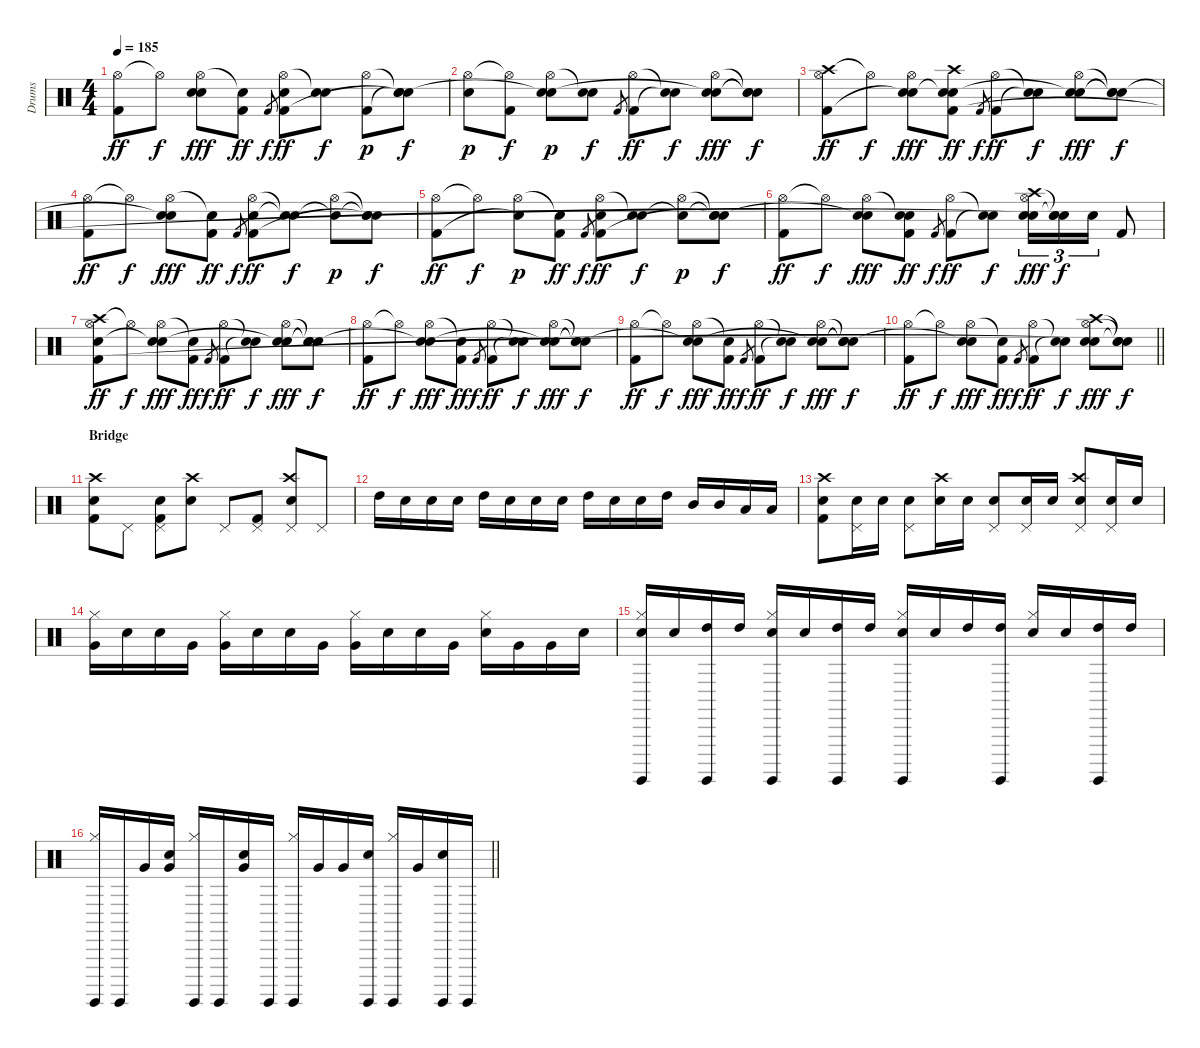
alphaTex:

\track ("Drums" "Drums") {instrument percussion}
\staff {score}
\articulation defaults
\ts (4 4)
\tempo 185
\clef neutral
\ks c
("Hi-Hat (open)" "Kick (hit) 2").8{dy ff} "Hi-Hat (open)"{t}.8{dy f} ("Hi-Hat (open)" "Electric Snare (hit)" "Snare (hit)"{t}).8{dy fff} ("Snare (hit)"{t} "Kick (hit) 2").8{dy ff} "Kick (hit) 2".8{gr dy f} ("Hi-Hat (open)" "Electric Snare (hit)" "Kick (hit) 2").8{dy ff} ("Snare (hit)"{t} "Electric Snare (hit)").8{dy f} ("Hi-Hat (open)" "Kick (hit) 2").8{dy p} ("Snare (hit)"{t} "Snare (hit)"{t} "Snare (hit)"{t}).8{dy f} |
("Hi-Hat (open)" "Electric Snare (hit)").8{dy p} ("Hi-Hat (open)"{t} "Kick (hit) 2").8{dy f} ("Hi-Hat (open)" "Electric Snare (hit)" "Snare (hit)"{t}).8{dy p} ("Snare (hit)"{t} "Electric Snare (hit)").8{dy f} "Kick (hit) 2".8{gr} ("Hi-Hat (open)" "Kick (hit) 2").8{dy ff} ("Snare (hit)"{t} "Snare (hit)"{t}).8{dy f} ("Hi-Hat (open)" "Electric Snare (hit)" "Snare (hit)"{t}).8{dy fff} ("Snare (hit)"{t} "Snare (hit)"{t} "Snare (hit)"{t}).8{dy f} |
("Crash high (hit)" "Hi-Hat (open)" "Kick (hit) 2").8{dy ff} "Hi-Hat (open)"{t}.8{dy f} ("Hi-Hat (open)" "Electric Snare (hit)" "Snare (hit)"{t}).8{dy fff} ("Crash high (hit)" "Snare (hit)"{t} "Electric Snare (hit)" "Kick (hit) 2").8{dy ff} "Kick (hit) 2".8{gr dy f} ("Hi-Hat (open)" "Kick (hit) 2").8{dy ff} ("Snare (hit)"{t} "Snare (hit)"{t}).8{dy f} ("Hi-Hat (open)" "Electric Snare (hit)" "Snare (hit)"{t}).8{dy fff} ("Snare (hit)"{t} "Snare (hit)"{t} "Snare (hit)"{t}).8{dy f} |
("Hi-Hat (open)" "Kick (hit) 2").8{dy ff} "Hi-Hat (open)"{t}.8{dy f} ("Hi-Hat (open)" "Electric Snare (hit)" "Snare (hit)"{t}).8{dy fff} ("Snare (hit)"{t} "Kick (hit) 2").8{dy ff} "Kick (hit) 2".8{gr dy f} ("Hi-Hat (open)" "Electric Snare (hit)" "Kick (hit) 2").8{dy ff} ("Snare (hit)"{t} "Snare (hit)"{t}).8{dy f} ("Hi-Hat (open)" "Snare (hit)"{t}).8{dy p} ("Snare (hit)"{t} "Snare (hit)"{t} "Snare (hit)"{t}).8{dy f} |
("Hi-Hat (open)" "Kick (hit) 2").8{dy ff} "Hi-Hat (open)"{t}.8{dy f} ("Hi-Hat (open)" "Snare (hit)"{t}).8{dy p} ("Snare (hit)"{t} "Kick (hit) 2").8{dy ff} "Kick (hit) 2".8{gr dy f} ("Hi-Hat (open)" "Electric Snare (hit)" "Kick (hit) 2").8{dy ff} ("Snare (hit)"{t} "Electric Snare (hit)").8{dy f} ("Hi-Hat (open)" "Snare (hit)"{t}).8{dy p} ("Snare (hit)"{t} "Snare (hit)"{t} "Snare (hit)"{t}).8{dy f} |
("Hi-Hat (open)" "Kick (hit) 2").8{dy ff} "Hi-Hat (open)"{t}.8{dy f} ("Hi-Hat (open)" "Electric Snare (hit)" "Snare (hit)"{t}).8{dy fff} ("Snare (hit)"{t} "Electric Snare (hit)" "Kick (hit) 2").8{dy ff} "Kick (hit) 2".8{gr dy f} ("Hi-Hat (open)" "Kick (hit) 2").8{dy ff} ("Snare (hit)"{t} "Snare (hit)"{t}).8{dy f} ("Crash high (hit)" "Hi-Hat (open)" "Electric Snare (hit)" "Snare (hit)"{t}).16{tu (3 2) dy fff} ("Snare (hit)"{t} "Electric Snare (hit)" "Snare (hit)"{t}).16{tu (3 2) dy f} "Electric Snare (hit)".16{tu (3 2)} "Kick (hit) 2".8 |
("Crash high (hit)" "Hi-Hat (open)" "Electric Snare (hit)" "Kick (hit) 2").8{dy ff} "Hi-Hat (open)"{t}.8{dy f} ("Hi-Hat (open)" "Electric Snare (hit)" "Snare (hit)"{t}).8{dy fff} ("Snare (hit)"{t} "Kick (hit) 2").8{dy ff} "Kick (hit) 2".8{gr dy f} ("Hi-Hat (open)" "Kick (hit) 2").8{dy ff} ("Snare (hit)"{t} "Snare (hit)"{t}).8{dy f} ("Hi-Hat (open)" "Electric Snare (hit)" "Snare (hit)"{t}).8{dy fff} ("Snare (hit)"{t} "Snare (hit)"{t} "Snare (hit)"{t}).8{dy f} |
("Hi-Hat (open)" "Kick (hit) 2").8{dy ff} "Hi-Hat (open)"{t}.8{dy f} ("Hi-Hat (open)" "Electric Snare (hit)" "Snare (hit)"{t}).8{dy fff} ("Snare (hit)"{t} "Kick (hit) 2").8{dy ff} "Kick (hit) 2".8{gr dy f} ("Hi-Hat (open)" "Kick (hit) 2").8{dy ff} ("Snare (hit)"{t} "Snare (hit)"{t}).8{dy f} ("Hi-Hat (open)" "Electric Snare (hit)" "Snare (hit)"{t}).8{dy fff} ("Snare (hit)"{t} "Snare (hit)"{t} "Snare (hit)"{t}).8{dy f} |
("Hi-Hat (open)" "Kick (hit) 2").8{dy ff} "Hi-Hat (open)"{t}.8{dy f} ("Hi-Hat (open)" "Electric Snare (hit)" "Snare (hit)"{t}).8{dy fff} ("Snare (hit)"{t} "Kick (hit) 2").8{dy ff} "Kick (hit) 2".8{gr dy f} ("Hi-Hat (open)" "Kick (hit) 2").8{dy ff} ("Snare (hit)"{t} "Snare (hit)"{t}).8{dy f} ("Hi-Hat (open)" "Electric Snare (hit)" "Snare (hit)"{t}).8{dy fff} ("Snare (hit)"{t} "Snare (hit)"{t} "Snare (hit)"{t}).8{dy f} |
\barLineRight lightlight
("Hi-Hat (open)" "Kick (hit) 2").8{dy ff} "Hi-Hat (open)"{t}.8{dy f} ("Hi-Hat (open)" "Electric Snare (hit)" "Snare (hit)"{t}).8{dy fff} ("Snare (hit)"{t} "Kick (hit) 2").8{dy ff} "Kick (hit) 2".8{gr dy f} ("Hi-Hat (open)" "Kick (hit) 2").8{dy ff} ("Snare (hit)"{t} "Snare (hit)"{t}).8{dy f} ("Crash high (hit)" "Hi-Hat (open)" "Electric Snare (hit)" "Snare (hit)"{t}).8{dy fff} ("Snare (hit)"{t} "Snare (hit)"{t} "Snare (hit)"{t}).8{dy f} |
\section ("" "Bridge")
("Crash high (hit)" "Electric Snare (hit)" "Kick (hit) 2").8 "Pedal Hi-Hat (hit)".8 ("Pedal Hi-Hat (hit)" "Electric Snare (hit)" "Kick (hit) 2").8 ("Crash high (hit)" "Electric Snare (hit)").8 "Pedal Hi-Hat (hit)".8 ("Pedal Hi-Hat (hit)" "Kick (hit) 2").8 ("Crash high (hit)" "Pedal Hi-Hat (hit)" "Electric Snare (hit)").8 "Pedal Hi-Hat (hit)".8 |
"High Tom (hit)".16 "Electric Snare (hit)".16 "Electric Snare (hit)".16 "Electric Snare (hit)".16 "High Tom (hit)".16 "Electric Snare (hit)".16 "Electric Snare (hit)".16 "Electric Snare (hit)".16 "High Tom (hit)".16 "Electric Snare (hit)".16 "Electric Snare (hit)".16 "High Tom (hit)".16 "Mid Tom (hit)".16 "Mid Tom (hit)".16 "Low Tom (hit)".16 "Low Tom (hit)".16 |
("Crash high (hit)" "Electric Snare (hit)" "Kick (hit) 2").8 ("Pedal Hi-Hat (hit)" "Electric Snare (hit)").16 "Electric Snare (hit)".16 ("Pedal Hi-Hat (hit)" "Electric Snare (hit)").8 ("Crash high (hit)" "Electric Snare (hit)").16 "Electric Snare (hit)".16 ("Pedal Hi-Hat (hit)" "Electric Snare (hit)").8 ("Pedal Hi-Hat (hit)" "Electric Snare (hit)").16 "Electric Snare (hit)".16 ("Crash high (hit)" "Pedal Hi-Hat (hit)" "Electric Snare (hit)").8 ("Pedal Hi-Hat (hit)" "Electric Snare (hit)").16 "Electric Snare (hit)".16 |
("Hi-Hat (closed)" "Very Low Tom (hit)").16 "Electric Snare (hit)".16 "Electric Snare (hit)".16 "Very Low Tom (hit)".16 ("Hi-Hat (closed)" "Very Low Tom (hit)").16 "Electric Snare (hit)".16 "Electric Snare (hit)".16 "Very Low Tom (hit)".16 ("Hi-Hat (closed)" "Very Low Tom (hit)").16 "Electric Snare (hit)".16 "Electric Snare (hit)".16 "Very Low Tom (hit)".16 ("Hi-Hat (closed)" "Electric Snare (hit)").16 "Very Low Tom (hit)".16 "Very Low Tom (hit)".16 "Electric Snare (hit)".16 |
("Hi-Hat (closed)" "Electric Snare (hit)" "Surdo (hit)").16 "Electric Snare (hit)".16 ("High Tom (hit)" "Surdo (hit)").16 "High Tom (hit)".16 ("Hi-Hat (closed)" "Electric Snare (hit)" "Surdo (hit)").16 "Electric Snare (hit)".16 ("High Tom (hit)" "Surdo (hit)").16 "High Tom (hit)".16 ("Hi-Hat (closed)" "Electric Snare (hit)" "Surdo (hit)").16 "Electric Snare (hit)".16 "High Tom (hit)".16 ("High Tom (hit)" "Surdo (hit)").16 ("Hi-Hat (closed)" "Electric Snare (hit)").16 "Electric Snare (hit)".16 ("High Tom (hit)" "Surdo (hit)").16 "High Tom (hit)".16 |
\barLineRight lightlight
("Hi-Hat (closed)" "Surdo (hit)").16 "Surdo (hit)".16 "Very Low Tom (hit)".16 ("Electric Snare (hit)" "Very Low Tom (hit)").16 ("Hi-Hat (closed)" "Surdo (hit)").16 "Surdo (hit)".16 ("Electric Snare (hit)" "Very Low Tom (hit)").16 "Surdo (hit)".16 ("Hi-Hat (closed)" "Surdo (hit)").16 "Very Low Tom (hit)".16 "Very Low Tom (hit)".16 ("Electric Snare (hit)" "Surdo (hit)").16 ("Hi-Hat (closed)" "Surdo (hit)").16 "Very Low Tom (hit)".16 ("Electric Snare (hit)" "Surdo (hit)").16 "Surdo (hit)".16
